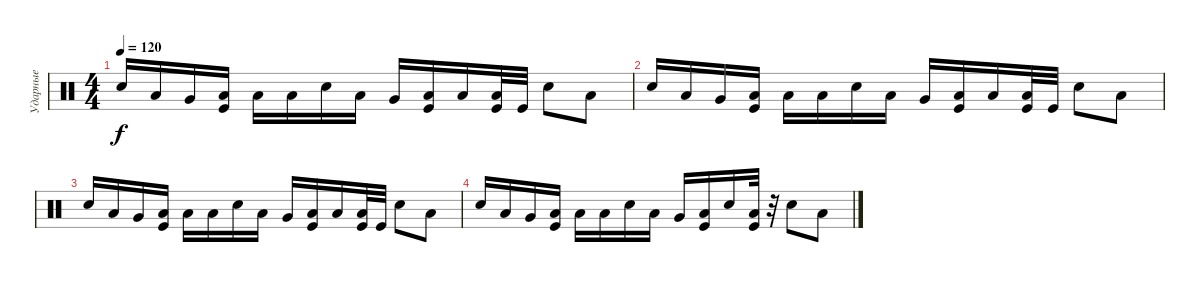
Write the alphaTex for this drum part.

\track ("Ударные" "Ударные") {solo instrument percussion}
\staff {score}
\articulation defaults
\ts (4 4)
\tempo 120
\clef neutral
\ks c "Snare (hit) 2".16{dy f} "Low Tom (hit)".16 "Very Low Tom (hit)".16
("Low Floor Tom (hit)" "Kick (hit)").16 "Low Floor Tom (hit)".16 "Low Floor Tom (hit)".16 "Snare (hit) 2".16 "Low Tom (hit)".16 "Very Low Tom (hit)".16 ("Low Floor Tom (hit)" "Kick (hit)").16 "Low Floor Tom (hit)".16 ("Low Floor Tom (hit)" "Kick (hit)").32 "Kick (hit)".32 "Snare (hit) 2".8 "Low Floor Tom (hit)".8 |
"Snare (hit) 2".16 "Low Tom (hit)".16 "Very Low Tom (hit)".16 ("Low Floor Tom (hit)" "Kick (hit)").16 "Low Floor Tom (hit)".16 "Low Floor Tom (hit)".16 "Snare (hit) 2".16 "Low Tom (hit)".16 "Very Low Tom (hit)".16 ("Low Floor Tom (hit)" "Kick (hit)").16 "Low Floor Tom (hit)".16 ("Low Floor Tom (hit)" "Kick (hit)").32 "Kick (hit)".32 "Snare (hit) 2".8 "Low Floor Tom (hit)".8 |
"Snare (hit) 2".16 "Low Tom (hit)".16 "Very Low Tom (hit)".16 ("Low Floor Tom (hit)" "Kick (hit)").16 "Low Floor Tom (hit)".16 "Low Floor Tom (hit)".16 "Snare (hit) 2".16 "Low Tom (hit)".16 "Very Low Tom (hit)".16 ("Low Floor Tom (hit)" "Kick (hit)").16 "Low Floor Tom (hit)".16 ("Low Floor Tom (hit)" "Kick (hit)").32 "Kick (hit)".32 "Snare (hit) 2".8 "Low Floor Tom (hit)".8 |
"Snare (hit) 2".16 "Low Tom (hit)".16 "Very Low Tom (hit)".16 ("Low Floor Tom (hit)" "Kick (hit)").16 "Low Floor Tom (hit)".16 "Low Floor Tom (hit)".16 "Snare (hit) 2".16 "Low Tom (hit)".16 "Very Low Tom (hit)".16 ("Low Floor Tom (hit)" "Kick (hit)").16 "Snare (hit) 2".16 ("Low Floor Tom (hit)" "Kick (hit)").32 r.32 "Snare (hit) 2".8 "Low Floor Tom (hit)".8
